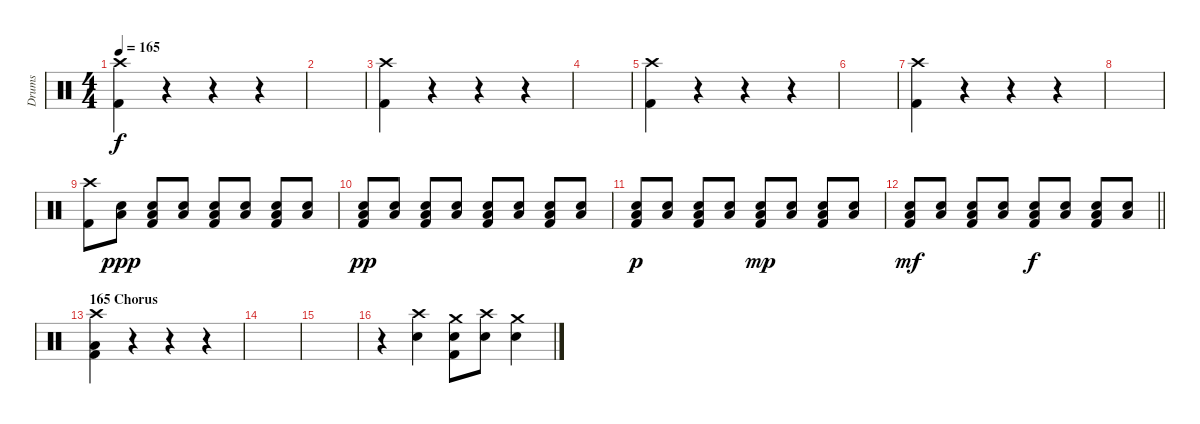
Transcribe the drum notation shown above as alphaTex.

\track ("Drums" "Drums") {instrument percussion}
\staff {score}
\articulation defaults
\ts (4 4)
\tempo 165
\clef neutral
\ks c
("Crash high (hit)" "Kick (hit) 2").4{dy f} r.4 r.4 r.4 |
|
("Crash high (hit)" "Kick (hit) 2").4 r.4 r.4 r.4 |
|
("Crash high (hit)" "Kick (hit) 2").4 r.4 r.4 r.4 |
|
("Crash high (hit)" "Kick (hit) 2").4 r.4 r.4 r.4 |
|
("Crash high (hit)" "Kick (hit) 2").8 ("Low Floor Tom (hit)" "Snare (hit) 2").8{dy ppp} ("Low Floor Tom (hit)" "Snare (hit) 2" "Kick (hit) 2").8 ("Low Floor Tom (hit)" "Snare (hit) 2").8 ("Low Floor Tom (hit)" "Snare (hit) 2" "Kick (hit) 2").8 ("Low Floor Tom (hit)" "Snare (hit) 2").8 ("Low Floor Tom (hit)" "Snare (hit) 2" "Kick (hit) 2").8 ("Low Floor Tom (hit)" "Snare (hit) 2").8 |
("Low Floor Tom (hit)" "Snare (hit) 2" "Kick (hit) 2").8{dy pp} ("Low Floor Tom (hit)" "Snare (hit) 2").8 ("Low Floor Tom (hit)" "Snare (hit) 2" "Kick (hit) 2").8 ("Low Floor Tom (hit)" "Snare (hit) 2").8 ("Low Floor Tom (hit)" "Snare (hit) 2" "Kick (hit) 2").8 ("Low Floor Tom (hit)" "Snare (hit) 2").8 ("Low Floor Tom (hit)" "Snare (hit) 2" "Kick (hit) 2").8 ("Low Floor Tom (hit)" "Snare (hit) 2").8 |
("Low Floor Tom (hit)" "Snare (hit) 2" "Kick (hit) 2").8{dy p} ("Low Floor Tom (hit)" "Snare (hit) 2").8 ("Low Floor Tom (hit)" "Snare (hit) 2" "Kick (hit) 2").8 ("Low Floor Tom (hit)" "Snare (hit) 2").8 ("Low Floor Tom (hit)" "Snare (hit) 2" "Kick (hit) 2").8{dy mp} ("Low Floor Tom (hit)" "Snare (hit) 2").8 ("Low Floor Tom (hit)" "Snare (hit) 2" "Kick (hit) 2").8 ("Low Floor Tom (hit)" "Snare (hit) 2").8 |
\barLineRight lightlight
("Low Floor Tom (hit)" "Snare (hit) 2" "Kick (hit) 2").8{dy mf} ("Low Floor Tom (hit)" "Snare (hit) 2").8 ("Low Floor Tom (hit)" "Snare (hit) 2" "Kick (hit) 2").8 ("Low Floor Tom (hit)" "Snare (hit) 2").8 ("Low Floor Tom (hit)" "Snare (hit) 2" "Kick (hit) 2").8{dy f} ("Low Floor Tom (hit)" "Snare (hit) 2").8 ("Low Floor Tom (hit)" "Snare (hit) 2" "Kick (hit) 2").8 ("Low Floor Tom (hit)" "Snare (hit) 2").8 |
\section ("" "165 Chorus")
("Crash high (hit)" "Low Floor Tom (hit)" "Kick (hit) 2").4 r.4 r.4 r.4 |
|
|
r.4 ("Crash high (hit)" "Snare (hit) 2").4 ("Crash medium (hit)" "Snare (hit) 2" "Kick (hit) 2").8 ("Crash high (hit)" "Snare (hit) 2").8 ("Crash medium (hit)" "Snare (hit) 2").4
